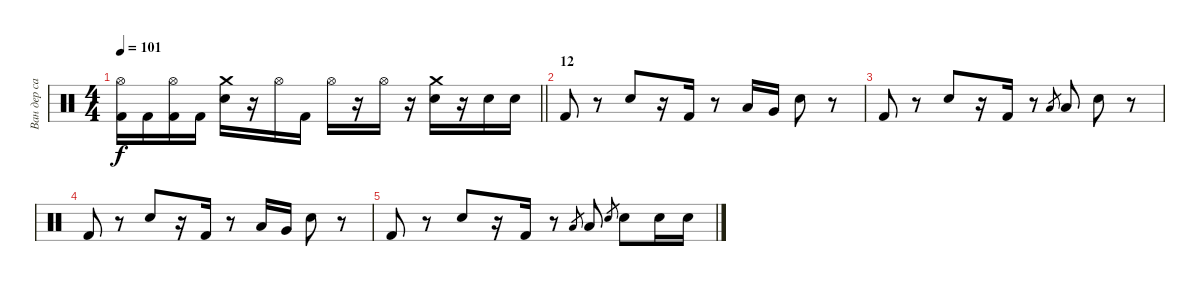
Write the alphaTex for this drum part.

\track ("Ван дер сар" "Ван дер са") {instrument percussion}
\staff {score}
\articulation defaults
\ts (4 4)
\tempo 101
\clef neutral
\barLineRight lightlight
\ks c
("Hi-Hat (open)" "Kick (hit) 2").16{dy f} "Kick (hit) 2".16 ("Hi-Hat (open)" "Kick (hit) 2").16 "Kick (hit) 2".16 ("Crash medium (hit)" "Snare (hit) 2").16 r.16 "Hi-Hat (open)".16 "Kick (hit) 2".16 "Hi-Hat (open)".16 r.16 "Hi-Hat (open)".16 r.16 ("Crash medium (hit)" "Snare (hit) 2").16 r.16 "Snare (hit) 2".16 "Snare (hit) 2".16 |
\section ("" "12")
"Kick (hit) 2".8 r.8 "Snare (hit) 2".8 r.16 "Kick (hit) 2".16 r.8 "Low Tom (hit)".16 "Very Low Tom (hit)".16 "Snare (hit) 2".8 r.8 |
"Kick (hit) 2".8 r.8 "Snare (hit) 2".8 r.16 "Kick (hit) 2".16 r.8 "Low Tom (hit)".8{gr} "Low Tom (hit)".8 "Snare (hit) 2".8 r.8 |
"Kick (hit) 2".8 r.8 "Snare (hit) 2".8 r.16 "Kick (hit) 2".16 r.8 "Low Tom (hit)".16 "Very Low Tom (hit)".16 "Snare (hit) 2".8 r.8 |
"Kick (hit) 2".8 r.8 "Snare (hit) 2".8 r.16 "Kick (hit) 2".16 r.8 "Low Tom (hit)".8{gr} "Low Tom (hit)".8 "Snare (hit) 2".8{gr} "Snare (hit) 2".8 "Snare (hit) 2".16 "Snare (hit) 2".16
